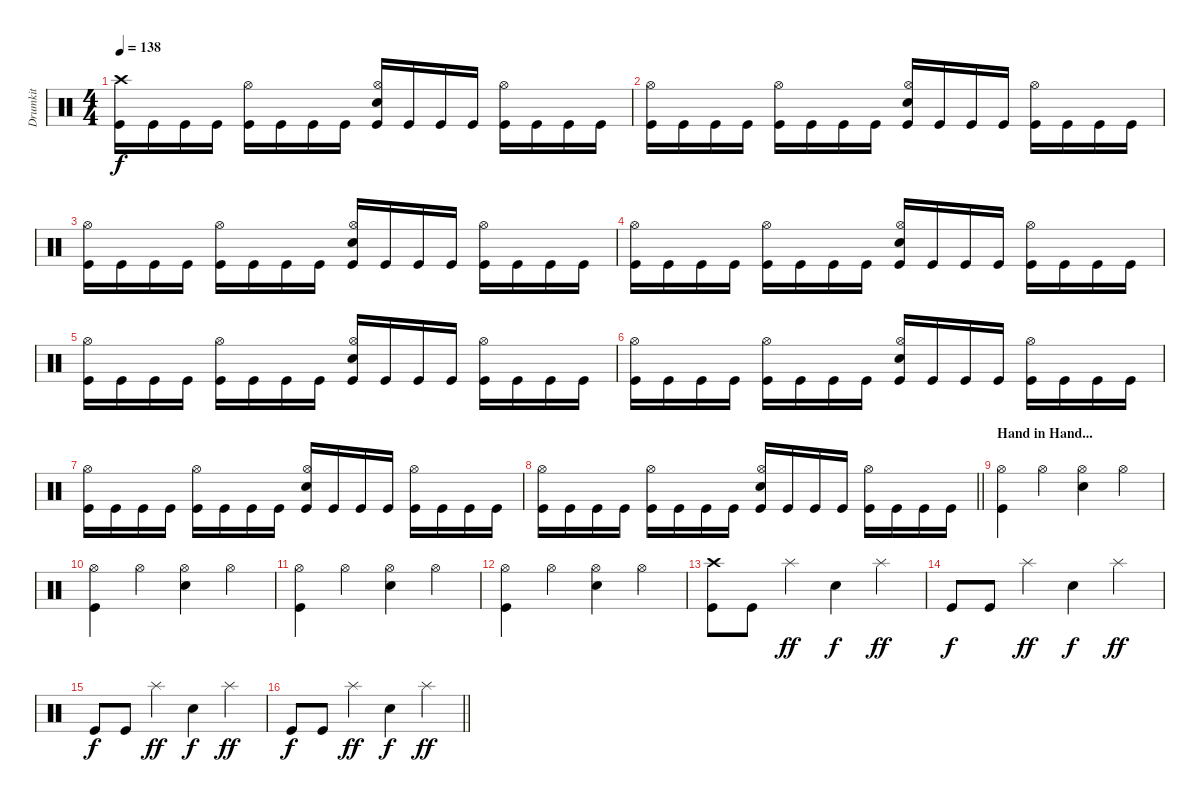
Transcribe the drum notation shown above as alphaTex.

\track ("Drumkit" "Drumkit") {instrument percussion}
\staff {score}
\articulation defaults
\ts (4 4)
\tempo 138
\clef neutral
\ks c
("Crash high (hit)" "Kick (hit)").16{dy f} "Kick (hit)".16 "Kick (hit)".16 "Kick (hit)".16 ("Hi-Hat (open)" "Kick (hit)").16 "Kick (hit)".16 "Kick (hit)".16 "Kick (hit)".16 ("Hi-Hat (open)" "Snare (hit) 2" "Kick (hit)").16 "Kick (hit)".16 "Kick (hit)".16 "Kick (hit)".16 ("Hi-Hat (open)" "Kick (hit)").16 "Kick (hit)".16 "Kick (hit)".16 "Kick (hit)".16 |
("Hi-Hat (open)" "Kick (hit)").16 "Kick (hit)".16 "Kick (hit)".16 "Kick (hit)".16 ("Hi-Hat (open)" "Kick (hit)").16 "Kick (hit)".16 "Kick (hit)".16 "Kick (hit)".16 ("Hi-Hat (open)" "Snare (hit) 2" "Kick (hit)").16 "Kick (hit)".16 "Kick (hit)".16 "Kick (hit)".16 ("Hi-Hat (open)" "Kick (hit)").16 "Kick (hit)".16 "Kick (hit)".16 "Kick (hit)".16 |
("Hi-Hat (open)" "Kick (hit)").16 "Kick (hit)".16 "Kick (hit)".16 "Kick (hit)".16 ("Hi-Hat (open)" "Kick (hit)").16 "Kick (hit)".16 "Kick (hit)".16 "Kick (hit)".16 ("Hi-Hat (open)" "Snare (hit) 2" "Kick (hit)").16 "Kick (hit)".16 "Kick (hit)".16 "Kick (hit)".16 ("Hi-Hat (open)" "Kick (hit)").16 "Kick (hit)".16 "Kick (hit)".16 "Kick (hit)".16 |
("Hi-Hat (open)" "Kick (hit)").16 "Kick (hit)".16 "Kick (hit)".16 "Kick (hit)".16 ("Hi-Hat (open)" "Kick (hit)").16 "Kick (hit)".16 "Kick (hit)".16 "Kick (hit)".16 ("Hi-Hat (open)" "Snare (hit) 2" "Kick (hit)").16 "Kick (hit)".16 "Kick (hit)".16 "Kick (hit)".16 ("Hi-Hat (open)" "Kick (hit)").16 "Kick (hit)".16 "Kick (hit)".16 "Kick (hit)".16 |
("Hi-Hat (open)" "Kick (hit)").16 "Kick (hit)".16 "Kick (hit)".16 "Kick (hit)".16 ("Hi-Hat (open)" "Kick (hit)").16 "Kick (hit)".16 "Kick (hit)".16 "Kick (hit)".16 ("Hi-Hat (open)" "Snare (hit) 2" "Kick (hit)").16 "Kick (hit)".16 "Kick (hit)".16 "Kick (hit)".16 ("Hi-Hat (open)" "Kick (hit)").16 "Kick (hit)".16 "Kick (hit)".16 "Kick (hit)".16 |
("Hi-Hat (open)" "Kick (hit)").16 "Kick (hit)".16 "Kick (hit)".16 "Kick (hit)".16 ("Hi-Hat (open)" "Kick (hit)").16 "Kick (hit)".16 "Kick (hit)".16 "Kick (hit)".16 ("Hi-Hat (open)" "Snare (hit) 2" "Kick (hit)").16 "Kick (hit)".16 "Kick (hit)".16 "Kick (hit)".16 ("Hi-Hat (open)" "Kick (hit)").16 "Kick (hit)".16 "Kick (hit)".16 "Kick (hit)".16 |
("Hi-Hat (open)" "Kick (hit)").16 "Kick (hit)".16 "Kick (hit)".16 "Kick (hit)".16 ("Hi-Hat (open)" "Kick (hit)").16 "Kick (hit)".16 "Kick (hit)".16 "Kick (hit)".16 ("Hi-Hat (open)" "Snare (hit) 2" "Kick (hit)").16 "Kick (hit)".16 "Kick (hit)".16 "Kick (hit)".16 ("Hi-Hat (open)" "Kick (hit)").16 "Kick (hit)".16 "Kick (hit)".16 "Kick (hit)".16 |
\barLineRight lightlight
("Hi-Hat (open)" "Kick (hit)").16 "Kick (hit)".16 "Kick (hit)".16 "Kick (hit)".16 ("Hi-Hat (open)" "Kick (hit)").16 "Kick (hit)".16 "Kick (hit)".16 "Kick (hit)".16 ("Hi-Hat (open)" "Snare (hit) 2" "Kick (hit)").16 "Kick (hit)".16 "Kick (hit)".16 "Kick (hit)".16 ("Hi-Hat (open)" "Kick (hit)").16 "Kick (hit)".16 "Kick (hit)".16 "Kick (hit)".16 |
\section ("" "Hand in Hand...")
("Hi-Hat (open)" "Kick (hit)").4 "Hi-Hat (open)".4 ("Hi-Hat (open)" "Snare (hit) 2").4 "Hi-Hat (open)".4 |
("Hi-Hat (open)" "Kick (hit)").4 "Hi-Hat (open)".4 ("Hi-Hat (open)" "Snare (hit) 2").4 "Hi-Hat (open)".4 |
("Hi-Hat (open)" "Kick (hit)").4 "Hi-Hat (open)".4 ("Hi-Hat (open)" "Snare (hit) 2").4 "Hi-Hat (open)".4 |
("Hi-Hat (open)" "Kick (hit)").4 "Hi-Hat (open)".4 ("Hi-Hat (open)" "Snare (hit) 2").4 "Hi-Hat (open)".4 |
("Crash high (hit)" "Kick (hit)").8 "Kick (hit)".8 "Splash (hit)".4{dy ff} "Snare (hit) 2".4{dy f} "Splash (hit)".4{dy ff} |
"Kick (hit)".8{dy f} "Kick (hit)".8 "Splash (hit)".4{dy ff} "Snare (hit) 2".4{dy f} "Splash (hit)".4{dy ff} |
"Kick (hit)".8{dy f} "Kick (hit)".8 "Splash (hit)".4{dy ff} "Snare (hit) 2".4{dy f} "Splash (hit)".4{dy ff} |
\barLineRight lightlight "Kick (hit)".8{dy f} "Kick (hit)".8 "Splash (hit)".4{dy ff} "Snare (hit) 2".4{dy f} "Splash (hit)".4{dy ff}
